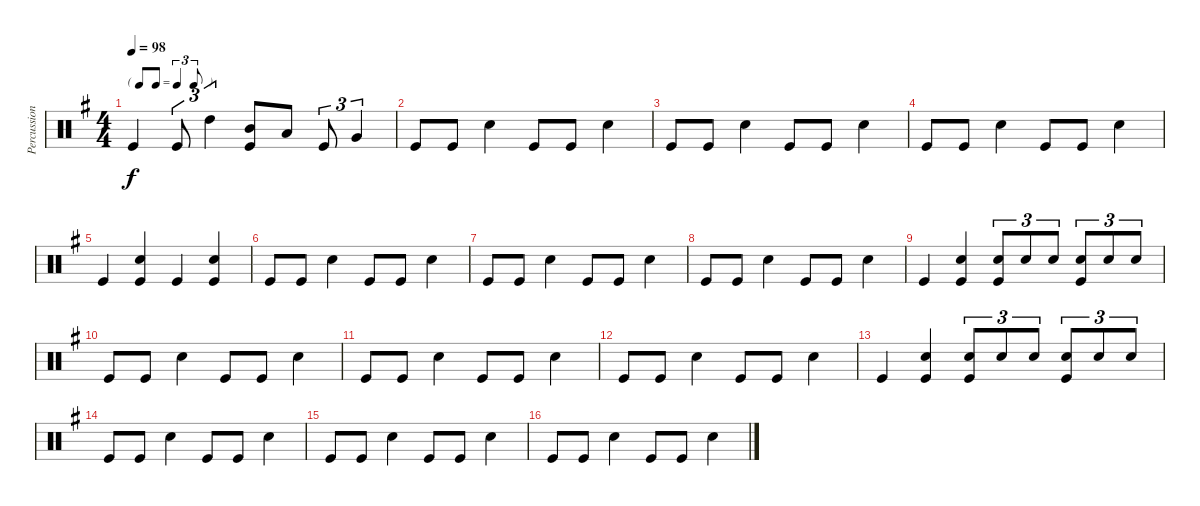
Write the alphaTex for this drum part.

\track ("Percussion" "Percussion") {instrument percussion}
\staff {score}
\articulation defaults
\ts (4 4)
\tf triplet8th
\tempo 98
\clef neutral
\ks g "Kick (hit)".4{dy f} "Kick (hit)".8{tu (3 2)} "High Tom (hit)".4{tu (3 2)}
("Mid Tom (hit)" "Kick (hit)").8 "Low Tom (hit)".8 "Kick (hit)".8{tu (3 2)} "Very Low Tom (hit)".4{tu (3 2)} |
"Kick (hit)".8 "Kick (hit)".8 "Snare (hit) 2".4 "Kick (hit)".8 "Kick (hit)".8 "Snare (hit) 2".4 |
"Kick (hit)".8 "Kick (hit)".8 "Snare (hit) 2".4 "Kick (hit)".8 "Kick (hit)".8 "Snare (hit) 2".4 |
"Kick (hit)".8 "Kick (hit)".8 "Snare (hit) 2".4 "Kick (hit)".8 "Kick (hit)".8 "Snare (hit) 2".4 |
"Kick (hit)".4 ("Snare (hit) 2" "Kick (hit)").4 "Kick (hit)".4 ("Snare (hit) 2" "Kick (hit)").4 |
"Kick (hit)".8 "Kick (hit)".8 "Snare (hit) 2".4 "Kick (hit)".8 "Kick (hit)".8 "Snare (hit) 2".4 |
"Kick (hit)".8 "Kick (hit)".8 "Snare (hit) 2".4 "Kick (hit)".8 "Kick (hit)".8 "Snare (hit) 2".4 |
"Kick (hit)".8 "Kick (hit)".8 "Snare (hit) 2".4 "Kick (hit)".8 "Kick (hit)".8 "Snare (hit) 2".4 |
"Kick (hit)".4 ("Snare (hit) 2" "Kick (hit)").4 ("Snare (hit) 2" "Kick (hit)").8{tu (3 2)} "Snare (hit) 2".8{tu (3 2)} "Snare (hit) 2".8{tu (3 2)} ("Snare (hit) 2" "Kick (hit)").8{tu (3 2)} "Snare (hit) 2".8{tu (3 2)} "Snare (hit) 2".8{tu (3 2)} |
"Kick (hit)".8 "Kick (hit)".8 "Snare (hit) 2".4 "Kick (hit)".8 "Kick (hit)".8 "Snare (hit) 2".4 |
"Kick (hit)".8 "Kick (hit)".8 "Snare (hit) 2".4 "Kick (hit)".8 "Kick (hit)".8 "Snare (hit) 2".4 |
"Kick (hit)".8 "Kick (hit)".8 "Snare (hit) 2".4 "Kick (hit)".8 "Kick (hit)".8 "Snare (hit) 2".4 |
"Kick (hit)".4 ("Snare (hit) 2" "Kick (hit)").4 ("Snare (hit) 2" "Kick (hit)").8{tu (3 2)} "Snare (hit) 2".8{tu (3 2)} "Snare (hit) 2".8{tu (3 2)} ("Snare (hit) 2" "Kick (hit)").8{tu (3 2)} "Snare (hit) 2".8{tu (3 2)} "Snare (hit) 2".8{tu (3 2)} |
"Kick (hit)".8 "Kick (hit)".8 "Snare (hit) 2".4 "Kick (hit)".8 "Kick (hit)".8 "Snare (hit) 2".4 |
"Kick (hit)".8 "Kick (hit)".8 "Snare (hit) 2".4 "Kick (hit)".8 "Kick (hit)".8 "Snare (hit) 2".4 |
"Kick (hit)".8 "Kick (hit)".8 "Snare (hit) 2".4 "Kick (hit)".8 "Kick (hit)".8 "Snare (hit) 2".4
